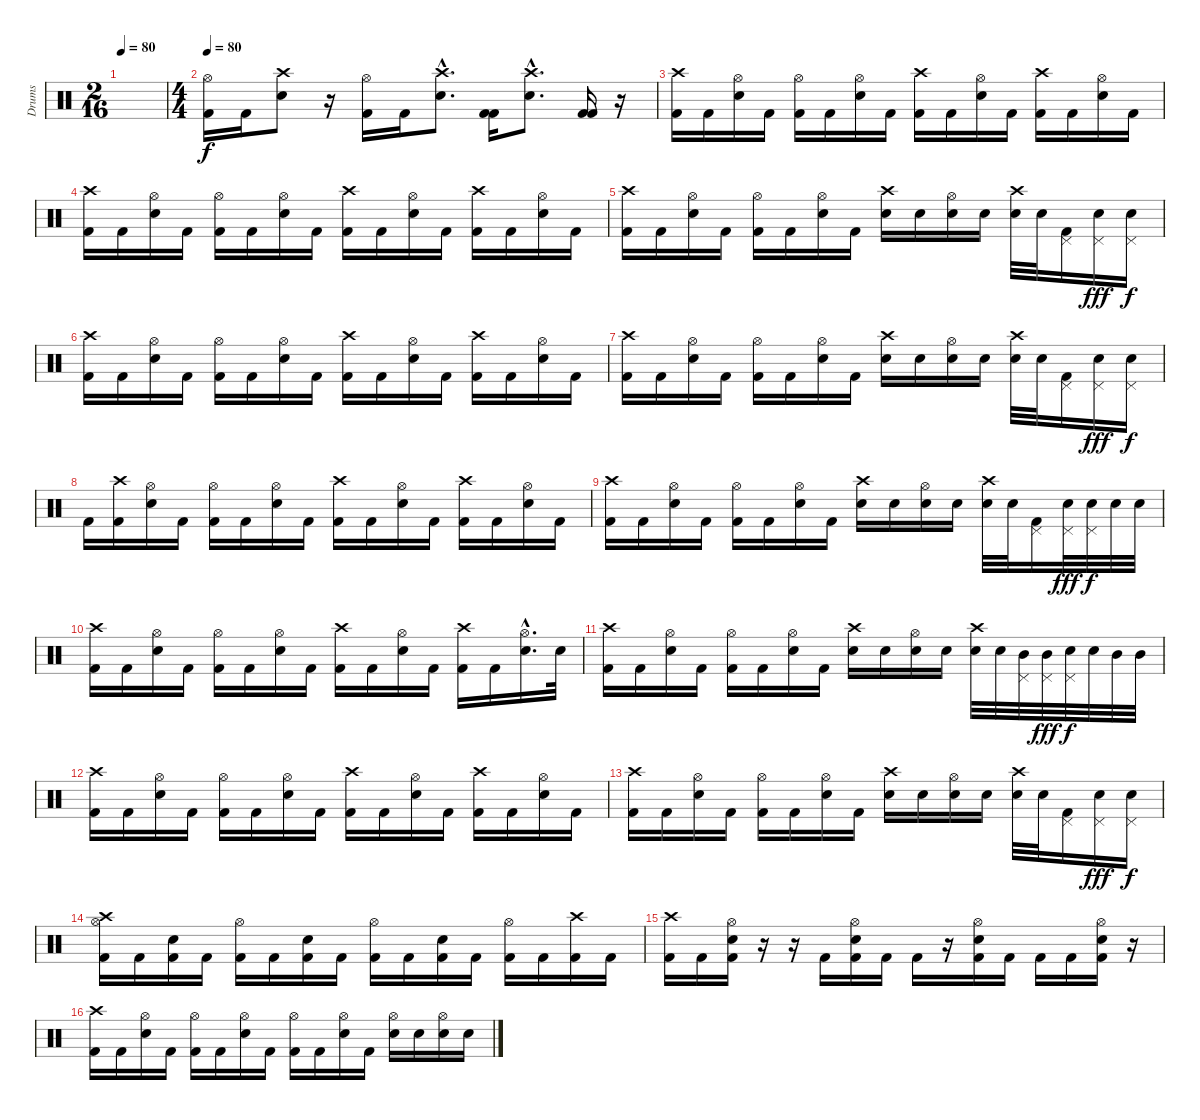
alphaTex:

\track ("Drums" "Drums") {instrument percussion}
\staff {score}
\articulation defaults
\ts (2 16)
\tempo 80
\clef neutral
\ks c
|
\ts (4 4)
\tempo 80
("Hi-Hat (open)" "Kick (hit) 2").16 "Kick (hit) 2".16 ("Crash high (hit)" "Electric Snare (hit)").8 r.16 ("Hi-Hat (open)" "Kick (hit) 2").16 "Kick (hit) 2".16 ("Crash high (hit)"{hac} "Electric Snare (hit)"{hac}).8{d} ("Kick (hit) 2" "Kick (hit) 2").16 ("Crash high (hit)"{hac} "Electric Snare (hit)"{hac}).8{d} ("Kick (hit) 2" "Kick (hit) 2").16 r.16 |
("Crash high (hit)" "Kick (hit) 2").16 "Kick (hit) 2".16 ("Hi-Hat (open)" "Electric Snare (hit)").16 "Kick (hit) 2".16 ("Hi-Hat (open)" "Kick (hit) 2").16 "Kick (hit) 2".16 ("Hi-Hat (open)" "Electric Snare (hit)").16 "Kick (hit) 2".16 ("Crash high (hit)" "Kick (hit) 2").16 "Kick (hit) 2".16 ("Hi-Hat (open)" "Electric Snare (hit)").16 "Kick (hit) 2".16 ("Crash high (hit)" "Kick (hit) 2").16 "Kick (hit) 2".16 ("Hi-Hat (open)" "Electric Snare (hit)").16 "Kick (hit) 2".16 |
("Crash high (hit)" "Kick (hit) 2").16 "Kick (hit) 2".16 ("Hi-Hat (open)" "Electric Snare (hit)").16 "Kick (hit) 2".16 ("Hi-Hat (open)" "Kick (hit) 2").16 "Kick (hit) 2".16 ("Hi-Hat (open)" "Electric Snare (hit)").16 "Kick (hit) 2".16 ("Crash high (hit)" "Kick (hit) 2").16 "Kick (hit) 2".16 ("Hi-Hat (open)" "Electric Snare (hit)").16 "Kick (hit) 2".16 ("Crash high (hit)" "Kick (hit) 2").16 "Kick (hit) 2".16 ("Hi-Hat (open)" "Electric Snare (hit)").16 "Kick (hit) 2".16 |
("Crash high (hit)" "Kick (hit) 2").16 "Kick (hit) 2".16 ("Hi-Hat (open)" "Electric Snare (hit)").16 "Kick (hit) 2".16 ("Hi-Hat (open)" "Kick (hit) 2").16 "Kick (hit) 2".16 ("Hi-Hat (open)" "Electric Snare (hit)").16 "Kick (hit) 2".16 ("Crash high (hit)" "Electric Snare (hit)").16 "Electric Snare (hit)".16 ("Hi-Hat (open)" "Electric Snare (hit)").16 "Electric Snare (hit)".16 ("Crash high (hit)" "Electric Snare (hit)").32 "Electric Snare (hit)".32 ("Pedal Hi-Hat (hit)" "Kick (hit) 2").16 ("Pedal Hi-Hat (hit)" "Electric Snare (hit)").16{dy fff} ("Pedal Hi-Hat (hit)" "Electric Snare (hit)").16{dy f} |
("Crash high (hit)" "Kick (hit) 2").16 "Kick (hit) 2".16 ("Hi-Hat (open)" "Electric Snare (hit)").16 "Kick (hit) 2".16 ("Hi-Hat (open)" "Kick (hit) 2").16 "Kick (hit) 2".16 ("Hi-Hat (open)" "Electric Snare (hit)").16 "Kick (hit) 2".16 ("Crash high (hit)" "Kick (hit) 2").16 "Kick (hit) 2".16 ("Hi-Hat (open)" "Electric Snare (hit)").16 "Kick (hit) 2".16 ("Crash high (hit)" "Kick (hit) 2").16 "Kick (hit) 2".16 ("Hi-Hat (open)" "Electric Snare (hit)").16 "Kick (hit) 2".16 |
("Crash high (hit)" "Kick (hit) 2").16 "Kick (hit) 2".16 ("Hi-Hat (open)" "Electric Snare (hit)").16 "Kick (hit) 2".16 ("Hi-Hat (open)" "Kick (hit) 2").16 "Kick (hit) 2".16 ("Hi-Hat (open)" "Electric Snare (hit)").16 "Kick (hit) 2".16 ("Crash high (hit)" "Electric Snare (hit)").16 "Electric Snare (hit)".16 ("Hi-Hat (open)" "Electric Snare (hit)").16 "Electric Snare (hit)".16 ("Crash high (hit)" "Electric Snare (hit)").32 "Electric Snare (hit)".32 ("Pedal Hi-Hat (hit)" "Kick (hit) 2").16 ("Pedal Hi-Hat (hit)" "Electric Snare (hit)").16{dy fff} ("Pedal Hi-Hat (hit)" "Electric Snare (hit)").16{dy f} |
"Kick (hit) 2".16 ("Crash high (hit)" "Kick (hit) 2").16 ("Hi-Hat (open)" "Electric Snare (hit)").16 "Kick (hit) 2".16 ("Hi-Hat (open)" "Kick (hit) 2").16 "Kick (hit) 2".16 ("Hi-Hat (open)" "Electric Snare (hit)").16 "Kick (hit) 2".16 ("Crash high (hit)" "Kick (hit) 2").16 "Kick (hit) 2".16 ("Hi-Hat (open)" "Electric Snare (hit)").16 "Kick (hit) 2".16 ("Crash high (hit)" "Kick (hit) 2").16 "Kick (hit) 2".16 ("Hi-Hat (open)" "Electric Snare (hit)").16 "Kick (hit) 2".16 |
("Crash high (hit)" "Kick (hit) 2").16 "Kick (hit) 2".16 ("Hi-Hat (open)" "Electric Snare (hit)").16 "Kick (hit) 2".16 ("Hi-Hat (open)" "Kick (hit) 2").16 "Kick (hit) 2".16 ("Hi-Hat (open)" "Electric Snare (hit)").16 "Kick (hit) 2".16 ("Crash high (hit)" "Electric Snare (hit)").16 "Electric Snare (hit)".16 ("Hi-Hat (open)" "Electric Snare (hit)").16 "Electric Snare (hit)".16 ("Crash high (hit)" "Electric Snare (hit)").32 "Electric Snare (hit)".32 ("Pedal Hi-Hat (hit)" "Kick (hit) 2").16 ("Pedal Hi-Hat (hit)" "Electric Snare (hit)").32{dy fff} ("Pedal Hi-Hat (hit)" "Electric Snare (hit)").32{dy f} "Electric Snare (hit)".32 "Electric Snare (hit)".32 |
("Crash high (hit)" "Kick (hit) 2").16 "Kick (hit) 2".16 ("Hi-Hat (open)" "Electric Snare (hit)").16 "Kick (hit) 2".16 ("Hi-Hat (open)" "Kick (hit) 2").16 "Kick (hit) 2".16 ("Hi-Hat (open)" "Electric Snare (hit)").16 "Kick (hit) 2".16 ("Crash high (hit)" "Kick (hit) 2").16 "Kick (hit) 2".16 ("Hi-Hat (open)" "Electric Snare (hit)").16 "Kick (hit) 2".16 ("Crash high (hit)" "Kick (hit) 2").16 "Kick (hit) 2".16 ("Hi-Hat (open)"{hac} "Electric Snare (hit)"{hac}).16{d} "Electric Snare (hit)".32 |
("Crash high (hit)" "Kick (hit) 2").16 "Kick (hit) 2".16 ("Hi-Hat (open)" "Electric Snare (hit)").16 "Kick (hit) 2".16 ("Hi-Hat (open)" "Kick (hit) 2").16 "Kick (hit) 2".16 ("Hi-Hat (open)" "Electric Snare (hit)").16 "Kick (hit) 2".16 ("Crash high (hit)" "Electric Snare (hit)").16 "Electric Snare (hit)".16 ("Hi-Hat (open)" "Electric Snare (hit)").16 "Electric Snare (hit)".16 ("Crash high (hit)" "Electric Snare (hit)").32 "Electric Snare (hit)".32 ("Pedal Hi-Hat (hit)" "Mid Tom (hit)").32 ("Pedal Hi-Hat (hit)" "Mid Tom (hit)").32{dy fff} ("Pedal Hi-Hat (hit)" "Electric Snare (hit)").32{dy f} "Electric Snare (hit)".32 "Mid Tom (hit)".32 "Mid Tom (hit)".32 |
("Crash high (hit)" "Kick (hit) 2").16 "Kick (hit) 2".16 ("Hi-Hat (open)" "Electric Snare (hit)").16 "Kick (hit) 2".16 ("Hi-Hat (open)" "Kick (hit) 2").16 "Kick (hit) 2".16 ("Hi-Hat (open)" "Electric Snare (hit)").16 "Kick (hit) 2".16 ("Crash high (hit)" "Kick (hit) 2").16 "Kick (hit) 2".16 ("Hi-Hat (open)" "Electric Snare (hit)").16 "Kick (hit) 2".16 ("Crash high (hit)" "Kick (hit) 2").16 "Kick (hit) 2".16 ("Hi-Hat (open)" "Electric Snare (hit)").16 "Kick (hit) 2".16 |
("Crash high (hit)" "Kick (hit) 2").16 "Kick (hit) 2".16 ("Hi-Hat (open)" "Electric Snare (hit)").16 "Kick (hit) 2".16 ("Hi-Hat (open)" "Kick (hit) 2").16 "Kick (hit) 2".16 ("Hi-Hat (open)" "Electric Snare (hit)").16 "Kick (hit) 2".16 ("Crash high (hit)" "Electric Snare (hit)").16 "Electric Snare (hit)".16 ("Hi-Hat (open)" "Electric Snare (hit)").16 "Electric Snare (hit)".16 ("Crash high (hit)" "Electric Snare (hit)").32 "Electric Snare (hit)".32 ("Pedal Hi-Hat (hit)" "Kick (hit) 2").16 ("Pedal Hi-Hat (hit)" "Electric Snare (hit)").16{dy fff} ("Pedal Hi-Hat (hit)" "Electric Snare (hit)").16{dy f} |
("Crash high (hit)" "Hi-Hat (open)" "Kick (hit) 2").16 "Kick (hit) 2".16 ("Electric Snare (hit)" "Kick (hit) 2").16 "Kick (hit) 2".16 ("Hi-Hat (open)" "Kick (hit) 2").16 "Kick (hit) 2".16 ("Electric Snare (hit)" "Kick (hit) 2").16 "Kick (hit) 2".16 ("Hi-Hat (open)" "Kick (hit) 2").16 "Kick (hit) 2".16 ("Electric Snare (hit)" "Kick (hit) 2").16 "Kick (hit) 2".16 ("Hi-Hat (open)" "Kick (hit) 2").16 "Kick (hit) 2".16 ("Crash high (hit)" "Kick (hit) 2").16 "Kick (hit) 2".16 |
("Crash high (hit)" "Kick (hit) 2").16 "Kick (hit) 2".16 ("Hi-Hat (open)" "Kick (hit) 2" "Electric Snare (hit)").16 r.16 r.16 "Kick (hit) 2".16 ("Hi-Hat (open)" "Kick (hit) 2" "Electric Snare (hit)").16 "Kick (hit) 2".16 "Kick (hit) 2".16 r.16 ("Hi-Hat (open)" "Kick (hit) 2" "Electric Snare (hit)").16 "Kick (hit) 2".16 "Kick (hit) 2".16 "Kick (hit) 2".16 ("Hi-Hat (open)" "Kick (hit) 2" "Electric Snare (hit)").16 r.16 |
("Crash high (hit)" "Kick (hit) 2").16 "Kick (hit) 2".16 ("Hi-Hat (open)" "Electric Snare (hit)").16 "Kick (hit) 2".16 ("Hi-Hat (open)" "Kick (hit) 2").16 "Kick (hit) 2".16 ("Hi-Hat (open)" "Electric Snare (hit)").16 "Kick (hit) 2".16 ("Hi-Hat (open)" "Kick (hit) 2").16 "Kick (hit) 2".16 ("Hi-Hat (open)" "Electric Snare (hit)").16 "Kick (hit) 2".16 ("Hi-Hat (open)" "Electric Snare (hit)").16 "Electric Snare (hit)".16 ("Hi-Hat (open)" "Electric Snare (hit)").16 "Electric Snare (hit)".16
